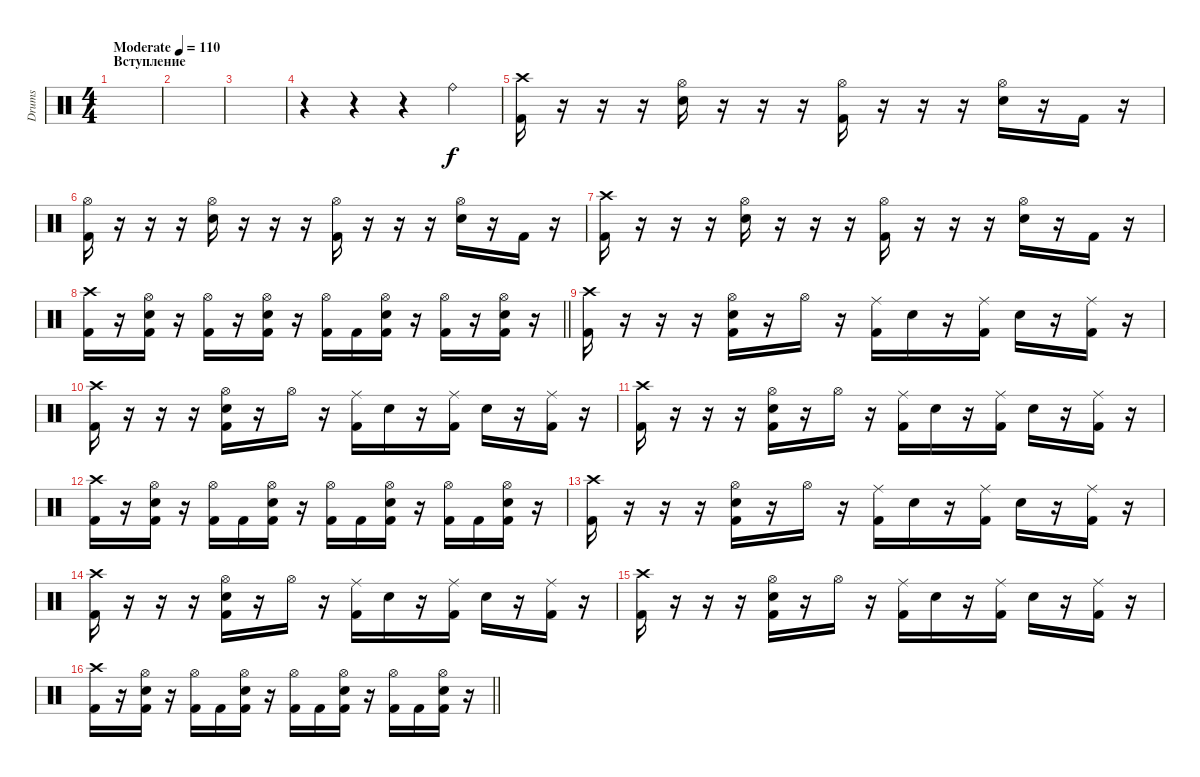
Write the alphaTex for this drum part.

\track ("Drums" "Drums") {instrument percussion}
\staff {score}
\articulation defaults
\ts (4 4)
\section ("" "Вступление")
\tempo (110 "Moderate")
\clef neutral
\ks c
|
|
|
r.4 r.4 r.4 "Ride (bell)".4 |
("Crash high (hit)" "Kick (hit) 2").16 r.16 r.16 r.16 ("Hi-Hat (open)" "Snare (hit) 2").16 r.16 r.16 r.16 ("Hi-Hat (open)" "Kick (hit) 2").16 r.16 r.16 r.16 ("Hi-Hat (open)" "Snare (hit) 2").16 r.16 "Kick (hit) 2".16 r.16 |
("Hi-Hat (open)" "Kick (hit) 2").16 r.16 r.16 r.16 ("Hi-Hat (open)" "Snare (hit) 2").16 r.16 r.16 r.16 ("Hi-Hat (open)" "Kick (hit) 2").16 r.16 r.16 r.16 ("Hi-Hat (open)" "Snare (hit) 2").16 r.16 "Kick (hit) 2".16 r.16 |
("Crash high (hit)" "Kick (hit) 2").16 r.16 r.16 r.16 ("Hi-Hat (open)" "Snare (hit) 2").16 r.16 r.16 r.16 ("Hi-Hat (open)" "Kick (hit) 2").16 r.16 r.16 r.16 ("Hi-Hat (open)" "Snare (hit) 2").16 r.16 "Kick (hit) 2".16 r.16 |
\barLineRight lightlight
("Crash high (hit)" "Kick (hit) 2").16 r.16 ("Hi-Hat (open)" "Snare (hit) 2" "Kick (hit) 2").16 r.16 ("Hi-Hat (open)" "Kick (hit) 2").16 r.16 ("Hi-Hat (open)" "Snare (hit) 2" "Kick (hit) 2").16 r.16 ("Hi-Hat (open)" "Kick (hit) 2").16 "Kick (hit) 2".16 ("Hi-Hat (open)" "Snare (hit) 2" "Kick (hit) 2").16 r.16 ("Hi-Hat (open)" "Kick (hit) 2").16 r.16 ("Hi-Hat (open)" "Snare (hit) 2" "Kick (hit) 2").16 r.16 |
\section ("" "")
("Crash high (hit)" "Kick (hit) 2").16 r.16 r.16 r.16 ("Hi-Hat (open)" "Snare (hit) 2" "Kick (hit) 2").16 r.16 "Hi-Hat (open)".16 r.16 ("Ride (middle)" "Kick (hit) 2").16 "Snare (hit) 2".16 r.16 ("Ride (middle)" "Kick (hit) 2").16 "Snare (hit) 2".16 r.16 ("Ride (middle)" "Kick (hit) 2").16 r.16 |
("Crash high (hit)" "Kick (hit) 2").16 r.16 r.16 r.16 ("Hi-Hat (open)" "Snare (hit) 2" "Kick (hit) 2").16 r.16 "Hi-Hat (open)".16 r.16 ("Ride (middle)" "Kick (hit) 2").16 "Snare (hit) 2".16 r.16 ("Ride (middle)" "Kick (hit) 2").16 "Snare (hit) 2".16 r.16 ("Ride (middle)" "Kick (hit) 2").16 r.16 |
("Crash high (hit)" "Kick (hit) 2").16 r.16 r.16 r.16 ("Hi-Hat (open)" "Snare (hit) 2" "Kick (hit) 2").16 r.16 "Hi-Hat (open)".16 r.16 ("Ride (middle)" "Kick (hit) 2").16 "Snare (hit) 2".16 r.16 ("Ride (middle)" "Kick (hit) 2").16 "Snare (hit) 2".16 r.16 ("Ride (middle)" "Kick (hit) 2").16 r.16 |
("Crash high (hit)" "Kick (hit) 2").16 r.16 ("Hi-Hat (open)" "Snare (hit) 2" "Kick (hit) 2").16 r.16 ("Hi-Hat (open)" "Kick (hit) 2").16 "Kick (hit) 2".16 ("Hi-Hat (open)" "Snare (hit) 2" "Kick (hit) 2").16 r.16 ("Hi-Hat (open)" "Kick (hit) 2").16 "Kick (hit) 2".16 ("Hi-Hat (open)" "Snare (hit) 2" "Kick (hit) 2").16 r.16 ("Hi-Hat (open)" "Kick (hit) 2").16 "Kick (hit) 2".16 ("Hi-Hat (open)" "Snare (hit) 2" "Kick (hit) 2").16 r.16 |
("Crash high (hit)" "Kick (hit) 2").16 r.16 r.16 r.16 ("Hi-Hat (open)" "Snare (hit) 2" "Kick (hit) 2").16 r.16 "Hi-Hat (open)".16 r.16 ("Ride (middle)" "Kick (hit) 2").16 "Snare (hit) 2".16 r.16 ("Ride (middle)" "Kick (hit) 2").16 "Snare (hit) 2".16 r.16 ("Ride (middle)" "Kick (hit) 2").16 r.16 |
("Crash high (hit)" "Kick (hit) 2").16 r.16 r.16 r.16 ("Hi-Hat (open)" "Snare (hit) 2" "Kick (hit) 2").16 r.16 "Hi-Hat (open)".16 r.16 ("Ride (middle)" "Kick (hit) 2").16 "Snare (hit) 2".16 r.16 ("Ride (middle)" "Kick (hit) 2").16 "Snare (hit) 2".16 r.16 ("Ride (middle)" "Kick (hit) 2").16 r.16 |
("Crash high (hit)" "Kick (hit) 2").16 r.16 r.16 r.16 ("Hi-Hat (open)" "Snare (hit) 2" "Kick (hit) 2").16 r.16 "Hi-Hat (open)".16 r.16 ("Ride (middle)" "Kick (hit) 2").16 "Snare (hit) 2".16 r.16 ("Ride (middle)" "Kick (hit) 2").16 "Snare (hit) 2".16 r.16 ("Ride (middle)" "Kick (hit) 2").16 r.16 |
\barLineRight lightlight
("Crash high (hit)" "Kick (hit) 2").16 r.16 ("Hi-Hat (open)" "Snare (hit) 2" "Kick (hit) 2").16 r.16 ("Hi-Hat (open)" "Kick (hit) 2").16 "Kick (hit) 2".16 ("Hi-Hat (open)" "Snare (hit) 2" "Kick (hit) 2").16 r.16 ("Hi-Hat (open)" "Kick (hit) 2").16 "Kick (hit) 2".16 ("Hi-Hat (open)" "Snare (hit) 2" "Kick (hit) 2").16 r.16 ("Hi-Hat (open)" "Kick (hit) 2").16 "Kick (hit) 2".16 ("Hi-Hat (open)" "Snare (hit) 2" "Kick (hit) 2").16 r.16
